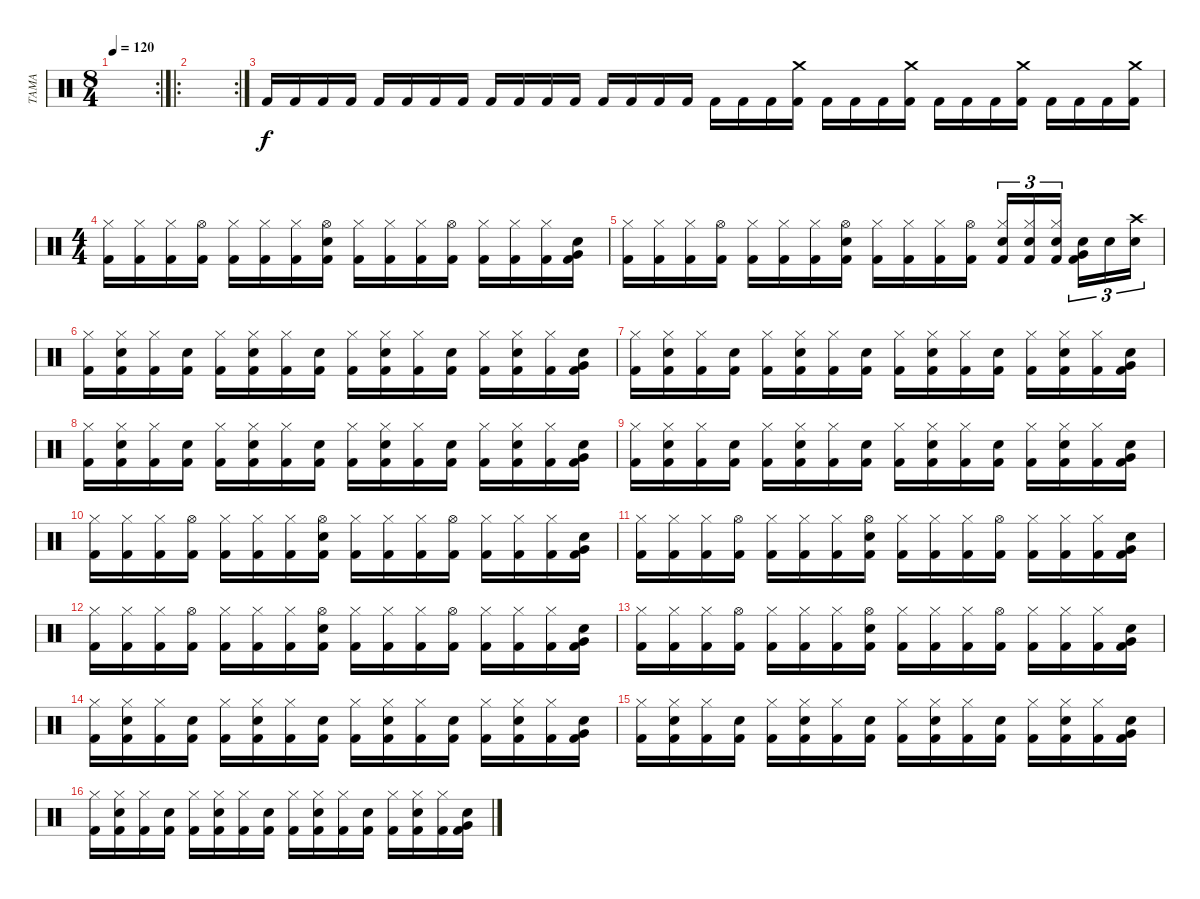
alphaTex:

\track ("TAMA" "TAMA") {instrument percussion}
\staff {score}
\articulation defaults
\rc 2
\ts (8 4)
\tempo 120
\clef neutral
\ks c
|
\ro
\rc 2
|
"Kick (hit) 2".16 "Kick (hit) 2".16 "Kick (hit) 2".16 "Kick (hit) 2".16 "Kick (hit) 2".16 "Kick (hit) 2".16 "Kick (hit) 2".16 "Kick (hit) 2".16 "Kick (hit) 2".16 "Kick (hit) 2".16 "Kick (hit) 2".16 "Kick (hit) 2".16 "Kick (hit) 2".16 "Kick (hit) 2".16 "Kick (hit) 2".16 "Kick (hit) 2".16 "Kick (hit) 2".16 "Kick (hit) 2".16 "Kick (hit) 2".16 ("Kick (hit) 2" "Crash medium (hit)").16 "Kick (hit) 2".16 "Kick (hit) 2".16 "Kick (hit) 2".16 ("Kick (hit) 2" "Crash medium (hit)").16 "Kick (hit) 2".16 "Kick (hit) 2".16 "Kick (hit) 2".16 ("Kick (hit) 2" "Crash medium (hit)").16 "Kick (hit) 2".16 "Kick (hit) 2".16 "Kick (hit) 2".16 ("Kick (hit) 2" "Crash medium (hit)").16 |
\ts (4 4)
("Kick (hit) 2" "Hi-Hat (closed)").16 ("Kick (hit) 2" "Hi-Hat (closed)").16 ("Kick (hit) 2" "Hi-Hat (closed)").16 ("Kick (hit) 2" "Hi-Hat (open)").16 ("Kick (hit) 2" "Hi-Hat (closed)").16 ("Kick (hit) 2" "Hi-Hat (closed)").16 ("Kick (hit) 2" "Hi-Hat (closed)").16 ("Kick (hit) 2" "Hi-Hat (open)" "Electric Snare (hit)").16 ("Kick (hit) 2" "Hi-Hat (closed)").16 ("Kick (hit) 2" "Hi-Hat (closed)").16 ("Kick (hit) 2" "Hi-Hat (closed)").16 ("Kick (hit) 2" "Hi-Hat (open)").16 ("Kick (hit) 2" "Hi-Hat (closed)").16 ("Kick (hit) 2" "Hi-Hat (closed)").16 ("Kick (hit) 2" "Hi-Hat (closed)").16 ("Kick (hit) 2" "Electric Snare (hit)" "Very Low Tom (hit)").16 |
("Kick (hit) 2" "Hi-Hat (closed)").16 ("Kick (hit) 2" "Hi-Hat (closed)").16 ("Kick (hit) 2" "Hi-Hat (closed)").16 ("Kick (hit) 2" "Hi-Hat (open)").16 ("Kick (hit) 2" "Hi-Hat (closed)").16 ("Kick (hit) 2" "Hi-Hat (closed)").16 ("Kick (hit) 2" "Hi-Hat (closed)").16 ("Kick (hit) 2" "Hi-Hat (open)" "Electric Snare (hit)").16 ("Kick (hit) 2" "Hi-Hat (closed)").16 ("Kick (hit) 2" "Hi-Hat (closed)").16 ("Kick (hit) 2" "Hi-Hat (closed)").16 ("Kick (hit) 2" "Hi-Hat (open)").16 ("Kick (hit) 2" "Hi-Hat (closed)" "Electric Snare (hit)").16{tu (3 2)} ("Kick (hit) 2" "Hi-Hat (closed)" "Electric Snare (hit)").16{tu (3 2)} ("Kick (hit) 2" "Hi-Hat (closed)" "Electric Snare (hit)").16{tu (3 2)} ("Kick (hit) 2" "Electric Snare (hit)" "Very Low Tom (hit)").16{tu (3 2)} "Electric Snare (hit)".16{tu (3 2)} ("Electric Snare (hit)" "Crash high (hit)").16{tu (3 2)} |
("Kick (hit) 2" "Hi-Hat (closed)").16 ("Kick (hit) 2" "Hi-Hat (closed)" "Electric Snare (hit)").16 ("Kick (hit) 2" "Hi-Hat (closed)").16 ("Kick (hit) 2" "Electric Snare (hit)").16 ("Kick (hit) 2" "Hi-Hat (closed)").16 ("Kick (hit) 2" "Hi-Hat (closed)" "Electric Snare (hit)").16 ("Kick (hit) 2" "Hi-Hat (closed)").16 ("Kick (hit) 2" "Electric Snare (hit)").16 ("Kick (hit) 2" "Hi-Hat (closed)").16 ("Kick (hit) 2" "Hi-Hat (closed)" "Electric Snare (hit)").16 ("Kick (hit) 2" "Hi-Hat (closed)").16 ("Kick (hit) 2" "Electric Snare (hit)").16 ("Kick (hit) 2" "Hi-Hat (closed)").16 ("Kick (hit) 2" "Hi-Hat (closed)" "Electric Snare (hit)").16 ("Kick (hit) 2" "Hi-Hat (closed)").16 ("Kick (hit) 2" "Electric Snare (hit)" "Very Low Tom (hit)").16 |
("Kick (hit) 2" "Hi-Hat (closed)").16 ("Kick (hit) 2" "Hi-Hat (closed)" "Electric Snare (hit)").16 ("Kick (hit) 2" "Hi-Hat (closed)").16 ("Kick (hit) 2" "Electric Snare (hit)").16 ("Kick (hit) 2" "Hi-Hat (closed)").16 ("Kick (hit) 2" "Hi-Hat (closed)" "Electric Snare (hit)").16 ("Kick (hit) 2" "Hi-Hat (closed)").16 ("Kick (hit) 2" "Electric Snare (hit)").16 ("Kick (hit) 2" "Hi-Hat (closed)").16 ("Kick (hit) 2" "Hi-Hat (closed)" "Electric Snare (hit)").16 ("Kick (hit) 2" "Hi-Hat (closed)").16 ("Kick (hit) 2" "Electric Snare (hit)").16 ("Kick (hit) 2" "Hi-Hat (closed)").16 ("Kick (hit) 2" "Hi-Hat (closed)" "Electric Snare (hit)").16 ("Kick (hit) 2" "Hi-Hat (closed)").16 ("Kick (hit) 2" "Electric Snare (hit)" "Very Low Tom (hit)").16 |
("Kick (hit) 2" "Hi-Hat (closed)").16 ("Kick (hit) 2" "Hi-Hat (closed)" "Electric Snare (hit)").16 ("Kick (hit) 2" "Hi-Hat (closed)").16 ("Kick (hit) 2" "Electric Snare (hit)").16 ("Kick (hit) 2" "Hi-Hat (closed)").16 ("Kick (hit) 2" "Hi-Hat (closed)" "Electric Snare (hit)").16 ("Kick (hit) 2" "Hi-Hat (closed)").16 ("Kick (hit) 2" "Electric Snare (hit)").16 ("Kick (hit) 2" "Hi-Hat (closed)").16 ("Kick (hit) 2" "Hi-Hat (closed)" "Electric Snare (hit)").16 ("Kick (hit) 2" "Hi-Hat (closed)").16 ("Kick (hit) 2" "Electric Snare (hit)").16 ("Kick (hit) 2" "Hi-Hat (closed)").16 ("Kick (hit) 2" "Hi-Hat (closed)" "Electric Snare (hit)").16 ("Kick (hit) 2" "Hi-Hat (closed)").16 ("Kick (hit) 2" "Electric Snare (hit)" "Very Low Tom (hit)").16 |
("Kick (hit) 2" "Hi-Hat (closed)").16 ("Kick (hit) 2" "Hi-Hat (closed)" "Electric Snare (hit)").16 ("Kick (hit) 2" "Hi-Hat (closed)").16 ("Kick (hit) 2" "Electric Snare (hit)").16 ("Kick (hit) 2" "Hi-Hat (closed)").16 ("Kick (hit) 2" "Hi-Hat (closed)" "Electric Snare (hit)").16 ("Kick (hit) 2" "Hi-Hat (closed)").16 ("Kick (hit) 2" "Electric Snare (hit)").16 ("Kick (hit) 2" "Hi-Hat (closed)").16 ("Kick (hit) 2" "Hi-Hat (closed)" "Electric Snare (hit)").16 ("Kick (hit) 2" "Hi-Hat (closed)").16 ("Kick (hit) 2" "Electric Snare (hit)").16 ("Kick (hit) 2" "Hi-Hat (closed)").16 ("Kick (hit) 2" "Hi-Hat (closed)" "Electric Snare (hit)").16 ("Kick (hit) 2" "Hi-Hat (closed)").16 ("Kick (hit) 2" "Electric Snare (hit)" "Very Low Tom (hit)").16 |
("Kick (hit) 2" "Hi-Hat (closed)").16 ("Kick (hit) 2" "Hi-Hat (closed)").16 ("Kick (hit) 2" "Hi-Hat (closed)").16 ("Kick (hit) 2" "Hi-Hat (open)").16 ("Kick (hit) 2" "Hi-Hat (closed)").16 ("Kick (hit) 2" "Hi-Hat (closed)").16 ("Kick (hit) 2" "Hi-Hat (closed)").16 ("Kick (hit) 2" "Hi-Hat (open)" "Electric Snare (hit)").16 ("Kick (hit) 2" "Hi-Hat (closed)").16 ("Kick (hit) 2" "Hi-Hat (closed)").16 ("Kick (hit) 2" "Hi-Hat (closed)").16 ("Kick (hit) 2" "Hi-Hat (open)").16 ("Kick (hit) 2" "Hi-Hat (closed)").16 ("Kick (hit) 2" "Hi-Hat (closed)").16 ("Kick (hit) 2" "Hi-Hat (closed)").16 ("Kick (hit) 2" "Electric Snare (hit)" "Very Low Tom (hit)").16 |
("Kick (hit) 2" "Hi-Hat (closed)").16 ("Kick (hit) 2" "Hi-Hat (closed)").16 ("Kick (hit) 2" "Hi-Hat (closed)").16 ("Kick (hit) 2" "Hi-Hat (open)").16 ("Kick (hit) 2" "Hi-Hat (closed)").16 ("Kick (hit) 2" "Hi-Hat (closed)").16 ("Kick (hit) 2" "Hi-Hat (closed)").16 ("Kick (hit) 2" "Hi-Hat (open)" "Electric Snare (hit)").16 ("Kick (hit) 2" "Hi-Hat (closed)").16 ("Kick (hit) 2" "Hi-Hat (closed)").16 ("Kick (hit) 2" "Hi-Hat (closed)").16 ("Kick (hit) 2" "Hi-Hat (open)").16 ("Kick (hit) 2" "Hi-Hat (closed)").16 ("Kick (hit) 2" "Hi-Hat (closed)").16 ("Kick (hit) 2" "Hi-Hat (closed)").16 ("Kick (hit) 2" "Electric Snare (hit)" "Very Low Tom (hit)").16 |
("Kick (hit) 2" "Hi-Hat (closed)").16 ("Kick (hit) 2" "Hi-Hat (closed)").16 ("Kick (hit) 2" "Hi-Hat (closed)").16 ("Kick (hit) 2" "Hi-Hat (open)").16 ("Kick (hit) 2" "Hi-Hat (closed)").16 ("Kick (hit) 2" "Hi-Hat (closed)").16 ("Kick (hit) 2" "Hi-Hat (closed)").16 ("Kick (hit) 2" "Hi-Hat (open)" "Electric Snare (hit)").16 ("Kick (hit) 2" "Hi-Hat (closed)").16 ("Kick (hit) 2" "Hi-Hat (closed)").16 ("Kick (hit) 2" "Hi-Hat (closed)").16 ("Kick (hit) 2" "Hi-Hat (open)").16 ("Kick (hit) 2" "Hi-Hat (closed)").16 ("Kick (hit) 2" "Hi-Hat (closed)").16 ("Kick (hit) 2" "Hi-Hat (closed)").16 ("Kick (hit) 2" "Electric Snare (hit)" "Very Low Tom (hit)").16 |
("Kick (hit) 2" "Hi-Hat (closed)").16 ("Kick (hit) 2" "Hi-Hat (closed)").16 ("Kick (hit) 2" "Hi-Hat (closed)").16 ("Kick (hit) 2" "Hi-Hat (open)").16 ("Kick (hit) 2" "Hi-Hat (closed)").16 ("Kick (hit) 2" "Hi-Hat (closed)").16 ("Kick (hit) 2" "Hi-Hat (closed)").16 ("Kick (hit) 2" "Hi-Hat (open)" "Electric Snare (hit)").16 ("Kick (hit) 2" "Hi-Hat (closed)").16 ("Kick (hit) 2" "Hi-Hat (closed)").16 ("Kick (hit) 2" "Hi-Hat (closed)").16 ("Kick (hit) 2" "Hi-Hat (open)").16 ("Kick (hit) 2" "Hi-Hat (closed)").16 ("Kick (hit) 2" "Hi-Hat (closed)").16 ("Kick (hit) 2" "Hi-Hat (closed)").16 ("Kick (hit) 2" "Electric Snare (hit)" "Very Low Tom (hit)").16 |
("Kick (hit) 2" "Hi-Hat (closed)").16 ("Kick (hit) 2" "Hi-Hat (closed)" "Electric Snare (hit)").16 ("Kick (hit) 2" "Hi-Hat (closed)").16 ("Kick (hit) 2" "Electric Snare (hit)").16 ("Kick (hit) 2" "Hi-Hat (closed)").16 ("Kick (hit) 2" "Hi-Hat (closed)" "Electric Snare (hit)").16 ("Kick (hit) 2" "Hi-Hat (closed)").16 ("Kick (hit) 2" "Electric Snare (hit)").16 ("Kick (hit) 2" "Hi-Hat (closed)").16 ("Kick (hit) 2" "Hi-Hat (closed)" "Electric Snare (hit)").16 ("Kick (hit) 2" "Hi-Hat (closed)").16 ("Kick (hit) 2" "Electric Snare (hit)").16 ("Kick (hit) 2" "Hi-Hat (closed)").16 ("Kick (hit) 2" "Hi-Hat (closed)" "Electric Snare (hit)").16 ("Kick (hit) 2" "Hi-Hat (closed)").16 ("Kick (hit) 2" "Electric Snare (hit)" "Very Low Tom (hit)").16 |
("Kick (hit) 2" "Hi-Hat (closed)").16 ("Kick (hit) 2" "Hi-Hat (closed)" "Electric Snare (hit)").16 ("Kick (hit) 2" "Hi-Hat (closed)").16 ("Kick (hit) 2" "Electric Snare (hit)").16 ("Kick (hit) 2" "Hi-Hat (closed)").16 ("Kick (hit) 2" "Hi-Hat (closed)" "Electric Snare (hit)").16 ("Kick (hit) 2" "Hi-Hat (closed)").16 ("Kick (hit) 2" "Electric Snare (hit)").16 ("Kick (hit) 2" "Hi-Hat (closed)").16 ("Kick (hit) 2" "Hi-Hat (closed)" "Electric Snare (hit)").16 ("Kick (hit) 2" "Hi-Hat (closed)").16 ("Kick (hit) 2" "Electric Snare (hit)").16 ("Kick (hit) 2" "Hi-Hat (closed)").16 ("Kick (hit) 2" "Hi-Hat (closed)" "Electric Snare (hit)").16 ("Kick (hit) 2" "Hi-Hat (closed)").16 ("Kick (hit) 2" "Electric Snare (hit)" "Very Low Tom (hit)").16 |
("Kick (hit) 2" "Hi-Hat (closed)").16 ("Kick (hit) 2" "Hi-Hat (closed)" "Electric Snare (hit)").16 ("Kick (hit) 2" "Hi-Hat (closed)").16 ("Kick (hit) 2" "Electric Snare (hit)").16 ("Kick (hit) 2" "Hi-Hat (closed)").16 ("Kick (hit) 2" "Hi-Hat (closed)" "Electric Snare (hit)").16 ("Kick (hit) 2" "Hi-Hat (closed)").16 ("Kick (hit) 2" "Electric Snare (hit)").16 ("Kick (hit) 2" "Hi-Hat (closed)").16 ("Kick (hit) 2" "Hi-Hat (closed)" "Electric Snare (hit)").16 ("Kick (hit) 2" "Hi-Hat (closed)").16 ("Kick (hit) 2" "Electric Snare (hit)").16 ("Kick (hit) 2" "Hi-Hat (closed)").16 ("Kick (hit) 2" "Hi-Hat (closed)" "Electric Snare (hit)").16 ("Kick (hit) 2" "Hi-Hat (closed)").16 ("Kick (hit) 2" "Electric Snare (hit)" "Very Low Tom (hit)").16
